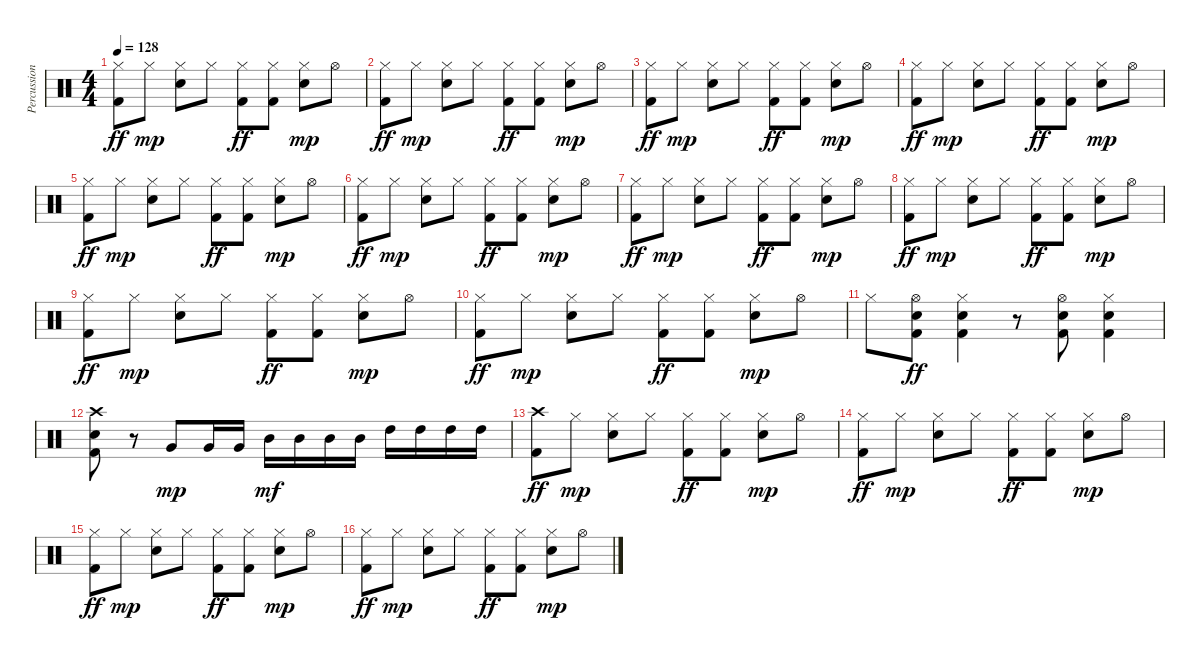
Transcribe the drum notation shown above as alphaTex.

\track ("Percussion" "Percussion") {instrument percussion}
\staff {score}
\articulation defaults
\ts (4 4)
\tempo 128
\clef neutral
\ks c
("Hi-Hat (closed)" "Kick (hit) 2").8{dy ff} "Hi-Hat (closed)".8{dy mp} ("Hi-Hat (closed)" "Electric Snare (hit)").8 "Hi-Hat (closed)".8 ("Hi-Hat (closed)" "Kick (hit) 2").8{dy ff} ("Hi-Hat (closed)" "Kick (hit) 2").8 ("Hi-Hat (closed)" "Electric Snare (hit)").8{dy mp} "Hi-Hat (open)".8 |
("Hi-Hat (closed)" "Kick (hit) 2").8{dy ff} "Hi-Hat (closed)".8{dy mp} ("Hi-Hat (closed)" "Electric Snare (hit)").8 "Hi-Hat (closed)".8 ("Hi-Hat (closed)" "Kick (hit) 2").8{dy ff} ("Hi-Hat (closed)" "Kick (hit) 2").8 ("Hi-Hat (closed)" "Electric Snare (hit)").8{dy mp} "Hi-Hat (open)".8 |
("Hi-Hat (closed)" "Kick (hit) 2").8{dy ff} "Hi-Hat (closed)".8{dy mp} ("Hi-Hat (closed)" "Electric Snare (hit)").8 "Hi-Hat (closed)".8 ("Hi-Hat (closed)" "Kick (hit) 2").8{dy ff} ("Hi-Hat (closed)" "Kick (hit) 2").8 ("Hi-Hat (closed)" "Electric Snare (hit)").8{dy mp} "Hi-Hat (open)".8 |
("Hi-Hat (closed)" "Kick (hit) 2").8{dy ff} "Hi-Hat (closed)".8{dy mp} ("Hi-Hat (closed)" "Electric Snare (hit)").8 "Hi-Hat (closed)".8 ("Hi-Hat (closed)" "Kick (hit) 2").8{dy ff} ("Hi-Hat (closed)" "Kick (hit) 2").8 ("Hi-Hat (closed)" "Electric Snare (hit)").8{dy mp} "Hi-Hat (open)".8 |
("Hi-Hat (closed)" "Kick (hit) 2").8{dy ff} "Hi-Hat (closed)".8{dy mp} ("Hi-Hat (closed)" "Electric Snare (hit)").8 "Hi-Hat (closed)".8 ("Hi-Hat (closed)" "Kick (hit) 2").8{dy ff} ("Hi-Hat (closed)" "Kick (hit) 2").8 ("Hi-Hat (closed)" "Electric Snare (hit)").8{dy mp} "Hi-Hat (open)".8 |
("Hi-Hat (closed)" "Kick (hit) 2").8{dy ff} "Hi-Hat (closed)".8{dy mp} ("Hi-Hat (closed)" "Electric Snare (hit)").8 "Hi-Hat (closed)".8 ("Hi-Hat (closed)" "Kick (hit) 2").8{dy ff} ("Hi-Hat (closed)" "Kick (hit) 2").8 ("Hi-Hat (closed)" "Electric Snare (hit)").8{dy mp} "Hi-Hat (open)".8 |
("Hi-Hat (closed)" "Kick (hit) 2").8{dy ff} "Hi-Hat (closed)".8{dy mp} ("Hi-Hat (closed)" "Electric Snare (hit)").8 "Hi-Hat (closed)".8 ("Hi-Hat (closed)" "Kick (hit) 2").8{dy ff} ("Hi-Hat (closed)" "Kick (hit) 2").8 ("Hi-Hat (closed)" "Electric Snare (hit)").8{dy mp} "Hi-Hat (open)".8 |
("Hi-Hat (closed)" "Kick (hit) 2").8{dy ff} "Hi-Hat (closed)".8{dy mp} ("Hi-Hat (closed)" "Electric Snare (hit)").8 "Hi-Hat (closed)".8 ("Hi-Hat (closed)" "Kick (hit) 2").8{dy ff} ("Hi-Hat (closed)" "Kick (hit) 2").8 ("Hi-Hat (closed)" "Electric Snare (hit)").8{dy mp} "Hi-Hat (open)".8 |
("Hi-Hat (closed)" "Kick (hit) 2").8{dy ff} "Hi-Hat (closed)".8{dy mp} ("Hi-Hat (closed)" "Electric Snare (hit)").8 "Hi-Hat (closed)".8 ("Hi-Hat (closed)" "Kick (hit) 2").8{dy ff} ("Hi-Hat (closed)" "Kick (hit) 2").8 ("Hi-Hat (closed)" "Electric Snare (hit)").8{dy mp} "Hi-Hat (open)".8 |
("Hi-Hat (closed)" "Kick (hit) 2").8{dy ff} "Hi-Hat (closed)".8{dy mp} ("Hi-Hat (closed)" "Electric Snare (hit)").8 "Hi-Hat (closed)".8 ("Hi-Hat (closed)" "Kick (hit) 2").8{dy ff} ("Hi-Hat (closed)" "Kick (hit) 2").8 ("Hi-Hat (closed)" "Electric Snare (hit)").8{dy mp} "Hi-Hat (open)".8 |
"Hi-Hat (closed)".8 ("Hi-Hat (open)" "Electric Snare (hit)" "Kick (hit) 2").8{dy ff} ("Hi-Hat (closed)" "Electric Snare (hit)" "Kick (hit) 2").4 r.8 ("Hi-Hat (open)" "Electric Snare (hit)" "Kick (hit) 2").8 ("Hi-Hat (closed)" "Electric Snare (hit)" "Kick (hit) 2").4 |
("Crash high (hit)" "Electric Snare (hit)" "Kick (hit) 2").8 r.8 "Very Low Tom (hit)".8{dy mp} "Very Low Tom (hit)".16 "Very Low Tom (hit)".16 "Mid Tom (hit)".16{dy mf} "Mid Tom (hit)".16 "Mid Tom (hit)".16 "Mid Tom (hit)".16 "High Tom (hit)".16 "High Tom (hit)".16 "High Tom (hit)".16 "High Tom (hit)".16 |
("Crash high (hit)" "Kick (hit) 2").8{dy ff} "Hi-Hat (closed)".8{dy mp} ("Hi-Hat (closed)" "Electric Snare (hit)").8 "Hi-Hat (closed)".8 ("Hi-Hat (closed)" "Kick (hit) 2").8{dy ff} ("Hi-Hat (closed)" "Kick (hit) 2").8 ("Hi-Hat (closed)" "Electric Snare (hit)").8{dy mp} "Hi-Hat (open)".8 |
("Hi-Hat (closed)" "Kick (hit) 2").8{dy ff} "Hi-Hat (closed)".8{dy mp} ("Hi-Hat (closed)" "Electric Snare (hit)").8 "Hi-Hat (closed)".8 ("Hi-Hat (closed)" "Kick (hit) 2").8{dy ff} ("Hi-Hat (closed)" "Kick (hit) 2").8 ("Hi-Hat (closed)" "Electric Snare (hit)").8{dy mp} "Hi-Hat (open)".8 |
("Hi-Hat (closed)" "Kick (hit) 2").8{dy ff} "Hi-Hat (closed)".8{dy mp} ("Hi-Hat (closed)" "Electric Snare (hit)").8 "Hi-Hat (closed)".8 ("Hi-Hat (closed)" "Kick (hit) 2").8{dy ff} ("Hi-Hat (closed)" "Kick (hit) 2").8 ("Hi-Hat (closed)" "Electric Snare (hit)").8{dy mp} "Hi-Hat (open)".8 |
("Hi-Hat (closed)" "Kick (hit) 2").8{dy ff} "Hi-Hat (closed)".8{dy mp} ("Hi-Hat (closed)" "Electric Snare (hit)").8 "Hi-Hat (closed)".8 ("Hi-Hat (closed)" "Kick (hit) 2").8{dy ff} ("Hi-Hat (closed)" "Kick (hit) 2").8 ("Hi-Hat (closed)" "Electric Snare (hit)").8{dy mp} "Hi-Hat (open)".8
